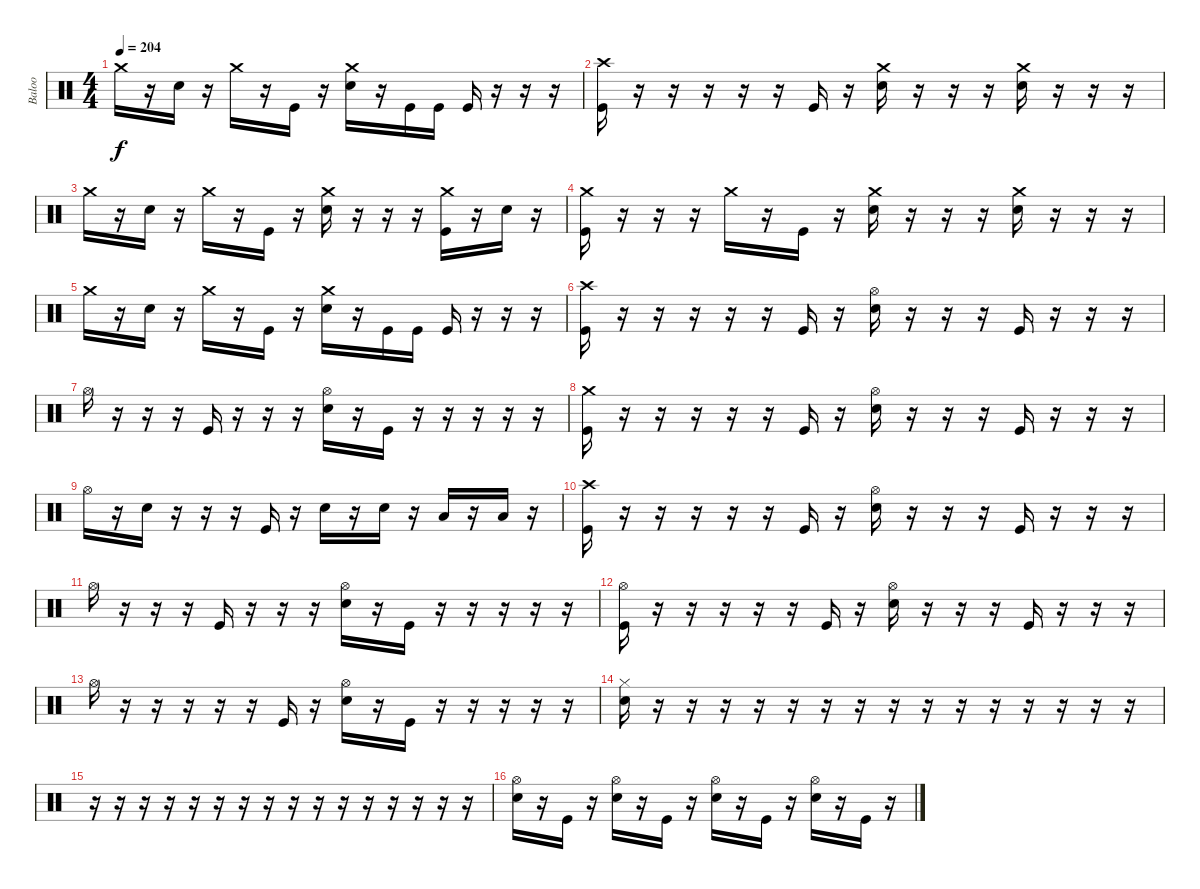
\track ("Baloo" "Baloo") {instrument percussion}
\staff {score}
\articulation defaults
\ts (4 4)
\tempo 204
\clef neutral
\ks c "Crash medium (hit)".16{dy f}
r.16 "Electric Snare (hit)".16 r.16 "Crash medium (hit)".16 r.16 "Kick (hit)".16 r.16 ("Crash medium (hit)" "Electric Snare (hit)").16 r.16 "Kick (hit)".16 "Kick (hit)".16 "Kick (hit)".16 r.16 r.16 r.16 |
("Crash high (hit)" "Kick (hit)").16 r.16 r.16 r.16 r.16 r.16 "Kick (hit)".16 r.16 ("Crash medium (hit)" "Electric Snare (hit)").16 r.16 r.16 r.16 ("Crash medium (hit)" "Electric Snare (hit)").16 r.16 r.16 r.16 |
"Crash medium (hit)".16 r.16 "Electric Snare (hit)".16 r.16 "Crash medium (hit)".16 r.16 "Kick (hit)".16 r.16 ("Crash medium (hit)" "Electric Snare (hit)").16 r.16 r.16 r.16 ("Crash medium (hit)" "Kick (hit)").16 r.16 "Electric Snare (hit)".16 r.16 |
("Crash medium (hit)" "Kick (hit)").16 r.16 r.16 r.16 "Crash medium (hit)".16 r.16 "Kick (hit)".16 r.16 ("Crash medium (hit)" "Electric Snare (hit)").16 r.16 r.16 r.16 ("Crash medium (hit)" "Electric Snare (hit)").16 r.16 r.16 r.16 |
"Crash medium (hit)".16 r.16 "Electric Snare (hit)".16 r.16 "Crash medium (hit)".16 r.16 "Kick (hit)".16 r.16 ("Crash medium (hit)" "Electric Snare (hit)").16 r.16 "Kick (hit)".16 "Kick (hit)".16 "Kick (hit)".16 r.16 r.16 r.16 |
("Crash high (hit)" "Kick (hit)").16 r.16 r.16 r.16 r.16 r.16 "Kick (hit)".16 r.16 ("Hi-Hat (open)" "Electric Snare (hit)").16 r.16 r.16 r.16 "Kick (hit)".16 r.16 r.16 r.16 |
"Hi-Hat (open)".16 r.16 r.16 r.16 "Kick (hit)".16 r.16 r.16 r.16 ("Hi-Hat (open)" "Electric Snare (hit)").16 r.16 "Kick (hit)".16 r.16 r.16 r.16 r.16 r.16 |
("Crash medium (hit)" "Kick (hit)").16 r.16 r.16 r.16 r.16 r.16 "Kick (hit)".16 r.16 ("Hi-Hat (open)" "Electric Snare (hit)").16 r.16 r.16 r.16 "Kick (hit)".16 r.16 r.16 r.16 |
"Hi-Hat (open)".16 r.16 "Electric Snare (hit)".16 r.16 r.16 r.16 "Kick (hit)".16 r.16 "Electric Snare (hit)".16 r.16 "Electric Snare (hit)".16 r.16 "Low Tom (hit)".16 r.16 "Low Floor Tom (hit)".16 r.16 |
("Crash high (hit)" "Kick (hit)").16 r.16 r.16 r.16 r.16 r.16 "Kick (hit)".16 r.16 ("Hi-Hat (open)" "Electric Snare (hit)").16 r.16 r.16 r.16 "Kick (hit)".16 r.16 r.16 r.16 |
"Hi-Hat (open)".16 r.16 r.16 r.16 "Kick (hit)".16 r.16 r.16 r.16 ("Hi-Hat (open)" "Electric Snare (hit)").16 r.16 "Kick (hit)".16 r.16 r.16 r.16 r.16 r.16 |
("Hi-Hat (open)" "Kick (hit)").16 r.16 r.16 r.16 r.16 r.16 "Kick (hit)".16 r.16 ("Hi-Hat (open)" "Electric Snare (hit)").16 r.16 r.16 r.16 "Kick (hit)".16 r.16 r.16 r.16 |
"Hi-Hat (open)".16 r.16 r.16 r.16 r.16 r.16 "Kick (hit)".16 r.16 ("Hi-Hat (open)" "Electric Snare (hit)").16 r.16 "Kick (hit)".16 r.16 r.16 r.16 r.16 r.16 |
("Hi-Hat (closed)" "Electric Snare (hit)").16 r.16 r.16 r.16 r.16 r.16 r.16 r.16 r.16 r.16 r.16 r.16 r.16 r.16 r.16 r.16 |
r.16 r.16 r.16 r.16 r.16 r.16 r.16 r.16 r.16 r.16 r.16 r.16 r.16 r.16 r.16 r.16 |
("Hi-Hat (open)" "Electric Snare (hit)").16 r.16 "Kick (hit)".16 r.16 ("Hi-Hat (open)" "Electric Snare (hit)").16 r.16 "Kick (hit)".16 r.16 ("Hi-Hat (open)" "Electric Snare (hit)").16 r.16 "Kick (hit)".16 r.16 ("Hi-Hat (open)" "Electric Snare (hit)").16 r.16 "Kick (hit)".16 r.16
